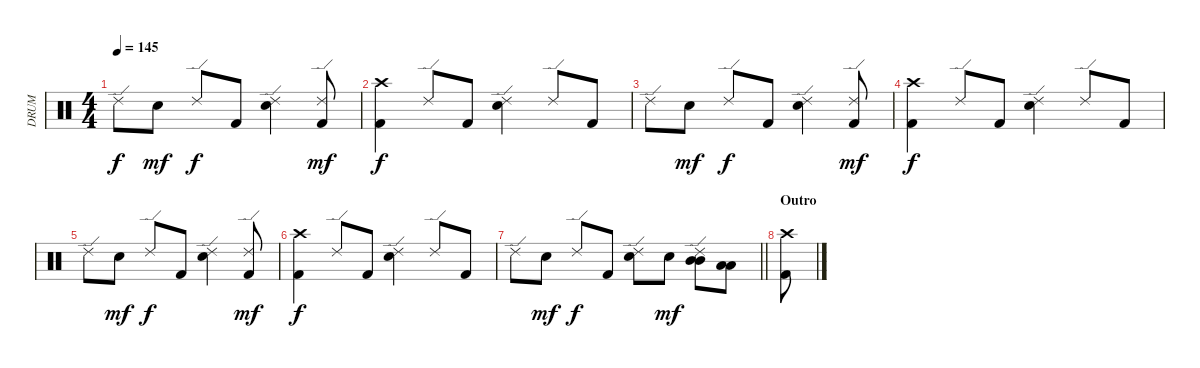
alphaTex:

\track ("DRUM" "DRUM") {instrument percussion}
\staff {score}
\articulation defaults
\ts (4 4)
\tempo 145
\clef neutral
\ks c "Ride (edge) 2".8{dy f} "Electric Snare (hit)".8{dy mf} "Ride (edge) 2".8{dy f} "Kick (hit) 2".8
("Ride (edge) 2" "Electric Snare (hit)").4 ("Ride (edge) 2" "Kick (hit) 2").8{dy mf} |
("Crash high (hit)" "Kick (hit) 2").4{dy f} "Ride (edge) 2".8 "Kick (hit) 2".8 ("Ride (edge) 2" "Electric Snare (hit)").4 "Ride (edge) 2".8 "Kick (hit) 2".8 |
"Ride (edge) 2".8 "Electric Snare (hit)".8{dy mf} "Ride (edge) 2".8{dy f} "Kick (hit) 2".8 ("Ride (edge) 2" "Electric Snare (hit)").4 ("Ride (edge) 2" "Kick (hit) 2").8{dy mf} |
("Crash high (hit)" "Kick (hit) 2").4{dy f} "Ride (edge) 2".8 "Kick (hit) 2".8 ("Ride (edge) 2" "Electric Snare (hit)").4 "Ride (edge) 2".8 "Kick (hit) 2".8 |
"Ride (edge) 2".8 "Electric Snare (hit)".8{dy mf} "Ride (edge) 2".8{dy f} "Kick (hit) 2".8 ("Ride (edge) 2" "Electric Snare (hit)").4 ("Ride (edge) 2" "Kick (hit) 2").8{dy mf} |
("Crash high (hit)" "Kick (hit) 2").4{dy f} "Ride (edge) 2".8 "Kick (hit) 2".8 ("Ride (edge) 2" "Electric Snare (hit)").4 "Ride (edge) 2".8 "Kick (hit) 2".8 |
\barLineRight lightlight "Ride (edge) 2".8 "Electric Snare (hit)".8{dy mf} "Ride (edge) 2".8{dy f} "Kick (hit) 2".8
("Ride (edge) 2" "Electric Snare (hit)").8 "Electric Snare (hit)".8{dy mf} ("Ride (edge) 2" "Mid Tom (hit)" "Mid Tom (hit)").8 ("Low Tom (hit)" "Low Tom (hit)").8 |
\section ("" "Outro")
("Crash high (hit)" "Kick (hit) 2").8
